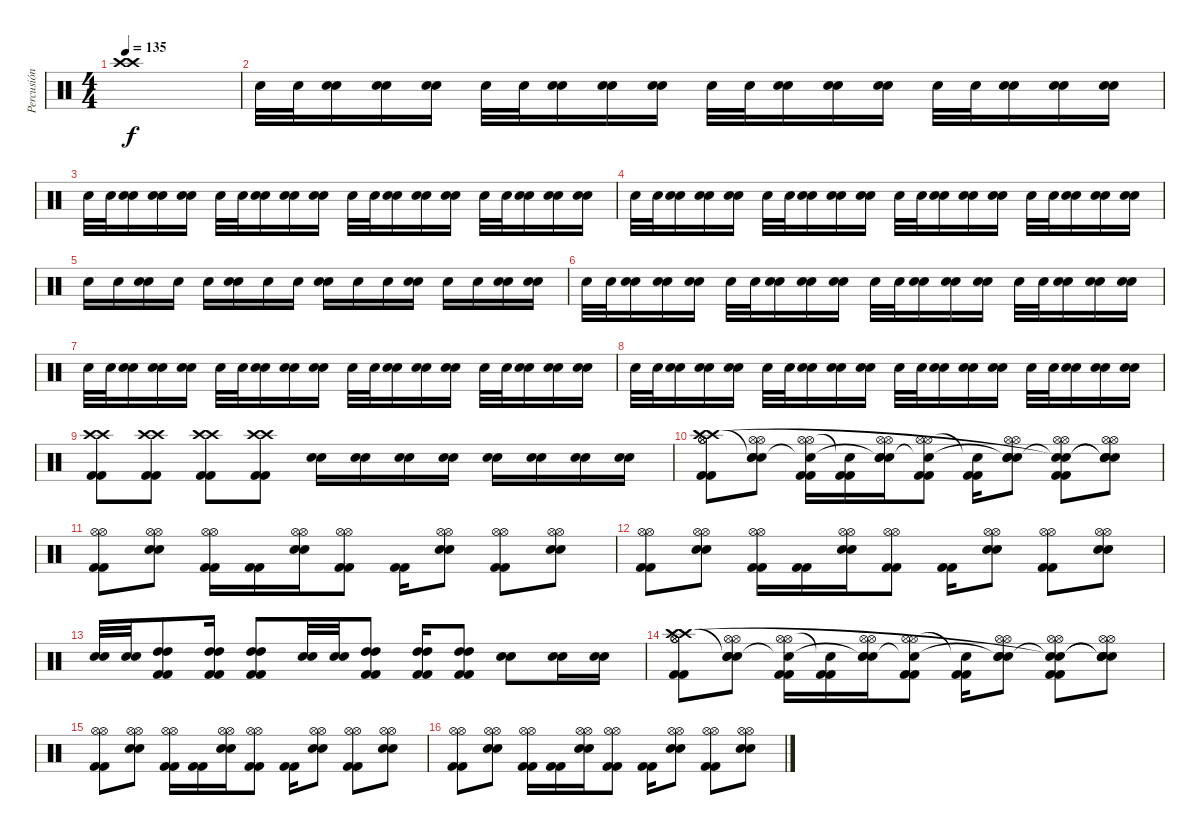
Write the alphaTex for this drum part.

\track ("Percusión" "Percusión") {instrument percussion}
\staff {score}
\articulation defaults
\ts (4 4)
\tempo 135
\clef neutral
\ks c
("Crash high (hit)"{t} "Crash high (hit)"{t}).1{dy f} |
"Snare (hit) 2".32 "Snare (hit) 2".32 ("Snare (hit) 2" "Snare (hit) 2").16 ("Snare (hit) 2" "Snare (hit) 2").16 ("Snare (hit) 2" "Snare (hit) 2").16 "Snare (hit) 2".32 "Snare (hit) 2".32 ("Snare (hit) 2" "Snare (hit) 2").16 ("Snare (hit) 2" "Snare (hit) 2").16 ("Snare (hit) 2" "Snare (hit) 2").16 "Snare (hit) 2".32 "Snare (hit) 2".32 ("Snare (hit) 2" "Snare (hit) 2").16 ("Snare (hit) 2" "Snare (hit) 2").16 ("Snare (hit) 2" "Snare (hit) 2").16 "Snare (hit) 2".32 "Snare (hit) 2".32 ("Snare (hit) 2" "Snare (hit) 2").16 ("Snare (hit) 2" "Snare (hit) 2").16 ("Snare (hit) 2" "Snare (hit) 2").16 |
"Snare (hit) 2".32 "Snare (hit) 2".32 ("Snare (hit) 2" "Snare (hit) 2").16 ("Snare (hit) 2" "Snare (hit) 2").16 ("Snare (hit) 2" "Snare (hit) 2").16 "Snare (hit) 2".32 "Snare (hit) 2".32 ("Snare (hit) 2" "Snare (hit) 2").16 ("Snare (hit) 2" "Snare (hit) 2").16 ("Snare (hit) 2" "Snare (hit) 2").16 "Snare (hit) 2".32 "Snare (hit) 2".32 ("Snare (hit) 2" "Snare (hit) 2").16 ("Snare (hit) 2" "Snare (hit) 2").16 ("Snare (hit) 2" "Snare (hit) 2").16 "Snare (hit) 2".32 "Snare (hit) 2".32 ("Snare (hit) 2" "Snare (hit) 2").16 ("Snare (hit) 2" "Snare (hit) 2").16 ("Snare (hit) 2" "Snare (hit) 2").16 |
"Snare (hit) 2".32 "Snare (hit) 2".32 ("Snare (hit) 2" "Snare (hit) 2").16 ("Snare (hit) 2" "Snare (hit) 2").16 ("Snare (hit) 2" "Snare (hit) 2").16 "Snare (hit) 2".32 "Snare (hit) 2".32 ("Snare (hit) 2" "Snare (hit) 2").16 ("Snare (hit) 2" "Snare (hit) 2").16 ("Snare (hit) 2" "Snare (hit) 2").16 "Snare (hit) 2".32 "Snare (hit) 2".32 ("Snare (hit) 2" "Snare (hit) 2").16 ("Snare (hit) 2" "Snare (hit) 2").16 ("Snare (hit) 2" "Snare (hit) 2").16 "Snare (hit) 2".32 "Snare (hit) 2".32 ("Snare (hit) 2" "Snare (hit) 2").16 ("Snare (hit) 2" "Snare (hit) 2").16 ("Snare (hit) 2" "Snare (hit) 2").16 |
"Snare (hit) 2".16 "Snare (hit) 2".16 ("Snare (hit) 2" "Snare (hit) 2").16 "Snare (hit) 2".16 "Snare (hit) 2".16 ("Snare (hit) 2" "Snare (hit) 2").16 "Snare (hit) 2".16 "Snare (hit) 2".16 ("Snare (hit) 2" "Snare (hit) 2").16 "Snare (hit) 2".16 "Snare (hit) 2".16 ("Snare (hit) 2" "Snare (hit) 2").16 "Snare (hit) 2".16 "Snare (hit) 2".16 ("Snare (hit) 2" "Snare (hit) 2").16 ("Snare (hit) 2" "Snare (hit) 2").16 |
"Snare (hit) 2".32 "Snare (hit) 2".32 ("Snare (hit) 2" "Snare (hit) 2").16 ("Snare (hit) 2" "Snare (hit) 2").16 ("Snare (hit) 2" "Snare (hit) 2").16 "Snare (hit) 2".32 "Snare (hit) 2".32 ("Snare (hit) 2" "Snare (hit) 2").16 ("Snare (hit) 2" "Snare (hit) 2").16 ("Snare (hit) 2" "Snare (hit) 2").16 "Snare (hit) 2".32 "Snare (hit) 2".32 ("Snare (hit) 2" "Snare (hit) 2").16 ("Snare (hit) 2" "Snare (hit) 2").16 ("Snare (hit) 2" "Snare (hit) 2").16 "Snare (hit) 2".32 "Snare (hit) 2".32 ("Snare (hit) 2" "Snare (hit) 2").16 ("Snare (hit) 2" "Snare (hit) 2").16 ("Snare (hit) 2" "Snare (hit) 2").16 |
"Snare (hit) 2".32 "Snare (hit) 2".32 ("Snare (hit) 2" "Snare (hit) 2").16 ("Snare (hit) 2" "Snare (hit) 2").16 ("Snare (hit) 2" "Snare (hit) 2").16 "Snare (hit) 2".32 "Snare (hit) 2".32 ("Snare (hit) 2" "Snare (hit) 2").16 ("Snare (hit) 2" "Snare (hit) 2").16 ("Snare (hit) 2" "Snare (hit) 2").16 "Snare (hit) 2".32 "Snare (hit) 2".32 ("Snare (hit) 2" "Snare (hit) 2").16 ("Snare (hit) 2" "Snare (hit) 2").16 ("Snare (hit) 2" "Snare (hit) 2").16 "Snare (hit) 2".32 "Snare (hit) 2".32 ("Snare (hit) 2" "Snare (hit) 2").16 ("Snare (hit) 2" "Snare (hit) 2").16 ("Snare (hit) 2" "Snare (hit) 2").16 |
"Snare (hit) 2".32 "Snare (hit) 2".32 ("Snare (hit) 2" "Snare (hit) 2").16 ("Snare (hit) 2" "Snare (hit) 2").16 ("Snare (hit) 2" "Snare (hit) 2").16 "Snare (hit) 2".32 "Snare (hit) 2".32 ("Snare (hit) 2" "Snare (hit) 2").16 ("Snare (hit) 2" "Snare (hit) 2").16 ("Snare (hit) 2" "Snare (hit) 2").16 "Snare (hit) 2".32 "Snare (hit) 2".32 ("Snare (hit) 2" "Snare (hit) 2").16 ("Snare (hit) 2" "Snare (hit) 2").16 ("Snare (hit) 2" "Snare (hit) 2").16 "Snare (hit) 2".32 "Snare (hit) 2".32 ("Snare (hit) 2" "Snare (hit) 2").16 ("Snare (hit) 2" "Snare (hit) 2").16 ("Snare (hit) 2" "Snare (hit) 2").16 |
("Crash high (hit)" "Crash high (hit)" "Kick (hit) 2" "Kick (hit) 2").8 ("Crash high (hit)" "Crash high (hit)" "Kick (hit) 2" "Kick (hit) 2").8 ("Crash high (hit)" "Crash high (hit)" "Kick (hit) 2" "Kick (hit) 2").8 ("Crash high (hit)" "Crash high (hit)" "Kick (hit) 2" "Kick (hit) 2").8 ("Snare (hit) 2" "Snare (hit) 2").16 ("Snare (hit) 2" "Snare (hit) 2").16 ("Snare (hit) 2" "Snare (hit) 2").16 ("Snare (hit) 2" "Snare (hit) 2").16 ("Snare (hit) 2" "Snare (hit) 2").16 ("Snare (hit) 2" "Snare (hit) 2").16 ("Snare (hit) 2" "Snare (hit) 2").16 ("Snare (hit) 2" "Snare (hit) 2").16 |
("Kick (hit) 2" "Kick (hit) 2" "Hi-Hat (open)" "Hi-Hat (open)" "Crash high (hit)" "Crash high (hit)").8 ("Snare (hit) 2" "Snare (hit) 2" "Hi-Hat (open)" "Hi-Hat (open)" "Snare (hit)"{t}).8 ("Kick (hit) 2" "Kick (hit) 2" "Hi-Hat (open)" "Hi-Hat (open)" "Snare (hit)"{t}).16 ("Kick (hit) 2" "Kick (hit) 2" "Snare (hit)"{t}).16 ("Snare (hit) 2" "Snare (hit) 2" "Hi-Hat (open)" "Hi-Hat (open)" "Snare (hit)"{t}).16 ("Kick (hit) 2" "Kick (hit) 2" "Hi-Hat (open)" "Hi-Hat (open)" "Snare (hit)"{t}).8 ("Kick (hit) 2" "Kick (hit) 2" "Snare (hit)"{t}).16 ("Snare (hit) 2" "Snare (hit) 2" "Hi-Hat (open)" "Hi-Hat (open)" "Snare (hit)"{t}).8 ("Kick (hit) 2" "Kick (hit) 2" "Hi-Hat (open)" "Hi-Hat (open)" "Snare (hit)"{t} "Snare (hit)"{t}).8 ("Snare (hit) 2" "Snare (hit) 2" "Hi-Hat (open)" "Hi-Hat (open)" "Snare (hit)"{t} "Snare (hit)"{t}).8 |
("Kick (hit) 2" "Kick (hit) 2" "Hi-Hat (open)" "Hi-Hat (open)").8 ("Snare (hit) 2" "Snare (hit) 2" "Hi-Hat (open)" "Hi-Hat (open)").8 ("Kick (hit) 2" "Kick (hit) 2" "Hi-Hat (open)" "Hi-Hat (open)").16 ("Kick (hit) 2" "Kick (hit) 2").16 ("Snare (hit) 2" "Snare (hit) 2" "Hi-Hat (open)" "Hi-Hat (open)").16 ("Kick (hit) 2" "Kick (hit) 2" "Hi-Hat (open)" "Hi-Hat (open)").8 ("Kick (hit) 2" "Kick (hit) 2").16 ("Snare (hit) 2" "Snare (hit) 2" "Hi-Hat (open)" "Hi-Hat (open)").8 ("Kick (hit) 2" "Kick (hit) 2" "Hi-Hat (open)" "Hi-Hat (open)").8 ("Snare (hit) 2" "Snare (hit) 2" "Hi-Hat (open)" "Hi-Hat (open)").8 |
("Kick (hit) 2" "Kick (hit) 2" "Hi-Hat (open)" "Hi-Hat (open)").8 ("Snare (hit) 2" "Snare (hit) 2" "Hi-Hat (open)" "Hi-Hat (open)").8 ("Kick (hit) 2" "Kick (hit) 2" "Hi-Hat (open)" "Hi-Hat (open)").16 ("Kick (hit) 2" "Kick (hit) 2").16 ("Snare (hit) 2" "Snare (hit) 2" "Hi-Hat (open)" "Hi-Hat (open)").16 ("Kick (hit) 2" "Kick (hit) 2" "Hi-Hat (open)" "Hi-Hat (open)").8 ("Kick (hit) 2" "Kick (hit) 2").16 ("Snare (hit) 2" "Snare (hit) 2" "Hi-Hat (open)" "Hi-Hat (open)").8 ("Kick (hit) 2" "Kick (hit) 2" "Hi-Hat (open)" "Hi-Hat (open)").8 ("Snare (hit) 2" "Snare (hit) 2" "Hi-Hat (open)" "Hi-Hat (open)").8 |
("Snare (hit) 2" "Snare (hit) 2").32 ("Snare (hit) 2" "Snare (hit) 2").32 ("Kick (hit) 2" "Kick (hit) 2" "High Tom (hit)" "High Tom (hit)").8 ("Kick (hit) 2" "Kick (hit) 2" "High Tom (hit)" "High Tom (hit)").16 ("Kick (hit) 2" "Kick (hit) 2" "High Tom (hit)" "High Tom (hit)").8 ("Snare (hit) 2" "Snare (hit) 2").32 ("Snare (hit) 2" "Snare (hit) 2").32 ("Kick (hit) 2" "Kick (hit) 2" "High Tom (hit)" "High Tom (hit)").8 ("Kick (hit) 2" "Kick (hit) 2" "High Tom (hit)" "High Tom (hit)").16 ("Kick (hit) 2" "Kick (hit) 2" "High Tom (hit)" "High Tom (hit)").8 ("Snare (hit) 2" "Snare (hit) 2").8 ("Snare (hit) 2" "Snare (hit) 2").16 ("Snare (hit) 2" "Snare (hit) 2").16 |
("Kick (hit) 2" "Kick (hit) 2" "Hi-Hat (open)" "Hi-Hat (open)" "Crash high (hit)" "Crash high (hit)").8 ("Snare (hit) 2" "Snare (hit) 2" "Hi-Hat (open)" "Hi-Hat (open)" "Snare (hit)"{t}).8 ("Kick (hit) 2" "Kick (hit) 2" "Hi-Hat (open)" "Hi-Hat (open)" "Snare (hit)"{t}).16 ("Kick (hit) 2" "Kick (hit) 2" "Snare (hit)"{t}).16 ("Snare (hit) 2" "Snare (hit) 2" "Hi-Hat (open)" "Hi-Hat (open)" "Snare (hit)"{t}).16 ("Kick (hit) 2" "Kick (hit) 2" "Hi-Hat (open)" "Hi-Hat (open)" "Snare (hit)"{t}).8 ("Kick (hit) 2" "Kick (hit) 2" "Snare (hit)"{t}).16 ("Snare (hit) 2" "Snare (hit) 2" "Hi-Hat (open)" "Hi-Hat (open)" "Snare (hit)"{t}).8 ("Kick (hit) 2" "Kick (hit) 2" "Hi-Hat (open)" "Hi-Hat (open)" "Snare (hit)"{t} "Snare (hit)"{t}).8 ("Snare (hit) 2" "Snare (hit) 2" "Hi-Hat (open)" "Hi-Hat (open)" "Snare (hit)"{t} "Snare (hit)"{t}).8 |
("Kick (hit) 2" "Kick (hit) 2" "Hi-Hat (open)" "Hi-Hat (open)").8 ("Snare (hit) 2" "Snare (hit) 2" "Hi-Hat (open)" "Hi-Hat (open)").8 ("Kick (hit) 2" "Kick (hit) 2" "Hi-Hat (open)" "Hi-Hat (open)").16 ("Kick (hit) 2" "Kick (hit) 2").16 ("Snare (hit) 2" "Snare (hit) 2" "Hi-Hat (open)" "Hi-Hat (open)").16 ("Kick (hit) 2" "Kick (hit) 2" "Hi-Hat (open)" "Hi-Hat (open)").8 ("Kick (hit) 2" "Kick (hit) 2").16 ("Snare (hit) 2" "Snare (hit) 2" "Hi-Hat (open)" "Hi-Hat (open)").8 ("Kick (hit) 2" "Kick (hit) 2" "Hi-Hat (open)" "Hi-Hat (open)").8 ("Snare (hit) 2" "Snare (hit) 2" "Hi-Hat (open)" "Hi-Hat (open)").8 |
("Kick (hit) 2" "Kick (hit) 2" "Hi-Hat (open)" "Hi-Hat (open)").8 ("Snare (hit) 2" "Snare (hit) 2" "Hi-Hat (open)" "Hi-Hat (open)").8 ("Kick (hit) 2" "Kick (hit) 2" "Hi-Hat (open)" "Hi-Hat (open)").16 ("Kick (hit) 2" "Kick (hit) 2").16 ("Snare (hit) 2" "Snare (hit) 2" "Hi-Hat (open)" "Hi-Hat (open)").16 ("Kick (hit) 2" "Kick (hit) 2" "Hi-Hat (open)" "Hi-Hat (open)").8 ("Kick (hit) 2" "Kick (hit) 2").16 ("Snare (hit) 2" "Snare (hit) 2" "Hi-Hat (open)" "Hi-Hat (open)").8 ("Kick (hit) 2" "Kick (hit) 2" "Hi-Hat (open)" "Hi-Hat (open)").8 ("Snare (hit) 2" "Snare (hit) 2" "Hi-Hat (open)" "Hi-Hat (open)").8
